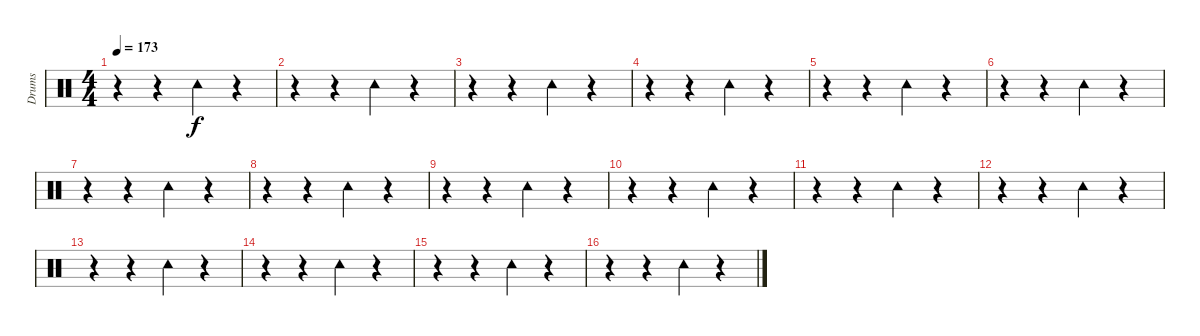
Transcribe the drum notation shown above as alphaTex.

\track ("Drums" "Drums") {instrument percussion}
\staff {score}
\articulation defaults
\ts (4 4)
\tempo 173
\clef neutral
\ks c
r.4{dy f} r.4 "Tambourine (hit)".4 r.4 |
r.4 r.4 "Tambourine (hit)".4 r.4 |
r.4 r.4 "Tambourine (hit)".4 r.4 |
r.4 r.4 "Tambourine (hit)".4 r.4 |
r.4 r.4 "Tambourine (hit)".4 r.4 |
r.4 r.4 "Tambourine (hit)".4 r.4 |
r.4 r.4 "Tambourine (hit)".4 r.4 |
r.4 r.4 "Tambourine (hit)".4 r.4 |
r.4 r.4 "Tambourine (hit)".4 r.4 |
r.4 r.4 "Tambourine (hit)".4 r.4 |
r.4 r.4 "Tambourine (hit)".4 r.4 |
r.4 r.4 "Tambourine (hit)".4 r.4 |
r.4 r.4 "Tambourine (hit)".4 r.4 |
r.4 r.4 "Tambourine (hit)".4 r.4 |
r.4 r.4 "Tambourine (hit)".4 r.4 |
r.4 r.4 "Tambourine (hit)".4 r.4
